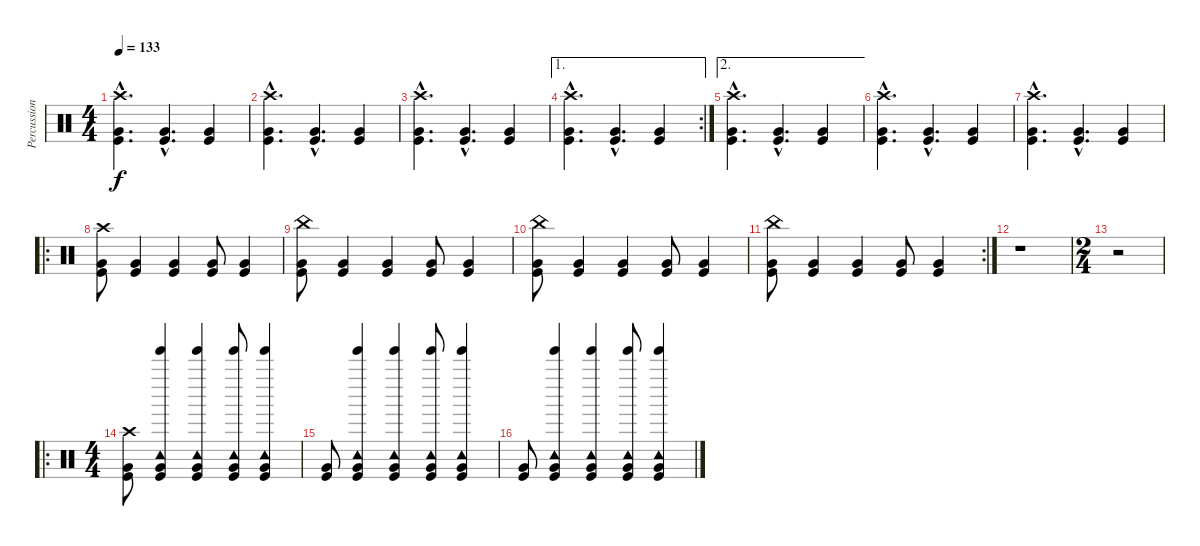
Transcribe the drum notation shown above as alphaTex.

\track ("Percussion" "Percussion") {instrument percussion}
\staff {score}
\articulation defaults
\ts (4 4)
\tempo 133
\clef neutral
\ks c
("Crash high (hit)"{hac} "Very Low Tom (hit)"{hac} "Kick (hit)"{hac}).4{d dy f} ("Very Low Tom (hit)"{hac} "Kick (hit)"{hac}).4{d} ("Very Low Tom (hit)" "Kick (hit)").4 |
("Crash high (hit)"{hac} "Very Low Tom (hit)"{hac} "Kick (hit)"{hac}).4{d} ("Very Low Tom (hit)"{hac} "Kick (hit)"{hac}).4{d} ("Very Low Tom (hit)" "Kick (hit)").4 |
("Crash high (hit)"{hac} "Very Low Tom (hit)"{hac} "Kick (hit)"{hac}).4{d} ("Very Low Tom (hit)"{hac} "Kick (hit)"{hac}).4{d} ("Very Low Tom (hit)" "Kick (hit)").4 |
\ae 1
\rc 2
("Crash high (hit)"{hac} "Very Low Tom (hit)"{hac} "Kick (hit)"{hac}).4{d} ("Very Low Tom (hit)"{hac} "Kick (hit)"{hac}).4{d} ("Very Low Tom (hit)" "Kick (hit)").4 |
\ae 2
("Crash high (hit)"{hac} "Very Low Tom (hit)"{hac} "Kick (hit)"{hac}).4{d} ("Very Low Tom (hit)"{hac} "Kick (hit)"{hac}).4{d} ("Very Low Tom (hit)" "Kick (hit)").4 |
("Crash high (hit)"{hac} "Very Low Tom (hit)"{hac} "Kick (hit)"{hac}).4{d} ("Very Low Tom (hit)"{hac} "Kick (hit)"{hac}).4{d} ("Very Low Tom (hit)" "Kick (hit)").4 |
("Crash high (hit)"{hac} "Very Low Tom (hit)"{hac} "Kick (hit)"{hac}).4{d} ("Very Low Tom (hit)"{hac} "Kick (hit)"{hac}).4{d} ("Very Low Tom (hit)" "Kick (hit)").4 |
\ro
("Crash high (hit)" "Very Low Tom (hit)" "Kick (hit)").8 ("Very Low Tom (hit)" "Kick (hit)").4 ("Very Low Tom (hit)" "Kick (hit)").4 ("Very Low Tom (hit)" "Kick (hit)").8 ("Very Low Tom (hit)" "Kick (hit)").4 |
("China (hit)" "Very Low Tom (hit)" "Kick (hit)").8 ("Very Low Tom (hit)" "Kick (hit)").4 ("Very Low Tom (hit)" "Kick (hit)").4 ("Very Low Tom (hit)" "Kick (hit)").8 ("Very Low Tom (hit)" "Kick (hit)").4 |
("China (hit)" "Very Low Tom (hit)" "Kick (hit)").8 ("Very Low Tom (hit)" "Kick (hit)").4 ("Very Low Tom (hit)" "Kick (hit)").4 ("Very Low Tom (hit)" "Kick (hit)").8 ("Very Low Tom (hit)" "Kick (hit)").4 |
\rc 2
("China (hit)" "Very Low Tom (hit)" "Kick (hit)").8 ("Very Low Tom (hit)" "Kick (hit)").4 ("Very Low Tom (hit)" "Kick (hit)").4 ("Very Low Tom (hit)" "Kick (hit)").8 ("Very Low Tom (hit)" "Kick (hit)").4 |
r.1 |
\ts (2 4)
r.2 |
\ro
\ts (4 4)
("Very Low Tom (hit)" "Kick (hit)" "Crash high (hit)").8 ("Tinkle Bell (hit)" "Tambourine (hit)" "Very Low Tom (hit)" "Kick (hit)").4 ("Tinkle Bell (hit)" "Tambourine (hit)" "Very Low Tom (hit)" "Kick (hit)").4 ("Tinkle Bell (hit)" "Tambourine (hit)" "Very Low Tom (hit)" "Kick (hit)").8 ("Tinkle Bell (hit)" "Tambourine (hit)" "Very Low Tom (hit)" "Kick (hit)").4 |
("Very Low Tom (hit)" "Kick (hit)").8 ("Tinkle Bell (hit)" "Tambourine (hit)" "Very Low Tom (hit)" "Kick (hit)").4 ("Tinkle Bell (hit)" "Tambourine (hit)" "Very Low Tom (hit)" "Kick (hit)").4 ("Tinkle Bell (hit)" "Tambourine (hit)" "Very Low Tom (hit)" "Kick (hit)").8 ("Tinkle Bell (hit)" "Tambourine (hit)" "Very Low Tom (hit)" "Kick (hit)").4 |
("Very Low Tom (hit)" "Kick (hit)").8 ("Tinkle Bell (hit)" "Tambourine (hit)" "Very Low Tom (hit)" "Kick (hit)").4 ("Tinkle Bell (hit)" "Tambourine (hit)" "Very Low Tom (hit)" "Kick (hit)").4 ("Tinkle Bell (hit)" "Tambourine (hit)" "Very Low Tom (hit)" "Kick (hit)").8 ("Tinkle Bell (hit)" "Tambourine (hit)" "Very Low Tom (hit)" "Kick (hit)").4
